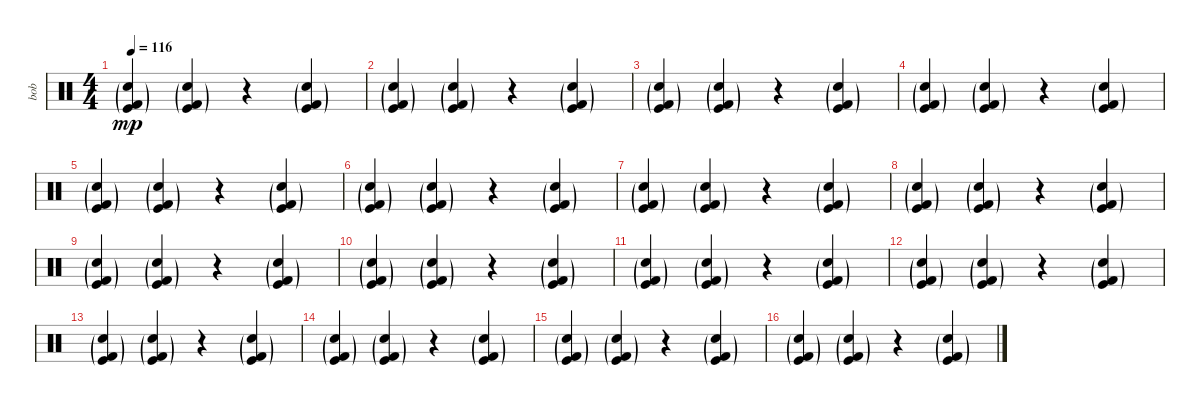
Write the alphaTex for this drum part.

\track ("bob" "bob") {instrument percussion}
\staff {score}
\articulation defaults
\ts (4 4)
\tempo 116
\clef neutral
\ks c
("Snare (hit) 2"{g} "Kick (hit) 2"{g} "Kick (hit)"{g}).4{dy mp} ("Snare (hit) 2"{g} "Kick (hit) 2"{g} "Kick (hit)"{g}).4 r.4 ("Snare (hit) 2"{g} "Kick (hit) 2"{g} "Kick (hit)"{g}).4 |
("Snare (hit) 2"{g} "Kick (hit) 2"{g} "Kick (hit)"{g}).4 ("Snare (hit) 2"{g} "Kick (hit) 2"{g} "Kick (hit)"{g}).4 r.4 ("Snare (hit) 2"{g} "Kick (hit) 2"{g} "Kick (hit)"{g}).4 |
("Snare (hit) 2"{g} "Kick (hit) 2"{g} "Kick (hit)"{g}).4 ("Snare (hit) 2"{g} "Kick (hit) 2"{g} "Kick (hit)"{g}).4 r.4 ("Snare (hit) 2"{g} "Kick (hit) 2"{g} "Kick (hit)"{g}).4 |
("Snare (hit) 2"{g} "Kick (hit) 2"{g} "Kick (hit)"{g}).4 ("Snare (hit) 2"{g} "Kick (hit) 2"{g} "Kick (hit)"{g}).4 r.4 ("Snare (hit) 2"{g} "Kick (hit) 2"{g} "Kick (hit)"{g}).4 |
("Snare (hit) 2"{g} "Kick (hit) 2"{g} "Kick (hit)"{g}).4 ("Snare (hit) 2"{g} "Kick (hit) 2"{g} "Kick (hit)"{g}).4 r.4 ("Snare (hit) 2"{g} "Kick (hit) 2"{g} "Kick (hit)"{g}).4 |
("Snare (hit) 2"{g} "Kick (hit) 2"{g} "Kick (hit)"{g}).4 ("Snare (hit) 2"{g} "Kick (hit) 2"{g} "Kick (hit)"{g}).4 r.4 ("Snare (hit) 2"{g} "Kick (hit) 2"{g} "Kick (hit)"{g}).4 |
("Snare (hit) 2"{g} "Kick (hit) 2"{g} "Kick (hit)"{g}).4 ("Snare (hit) 2"{g} "Kick (hit) 2"{g} "Kick (hit)"{g}).4 r.4 ("Snare (hit) 2"{g} "Kick (hit) 2"{g} "Kick (hit)"{g}).4 |
("Snare (hit) 2"{g} "Kick (hit) 2"{g} "Kick (hit)"{g}).4 ("Snare (hit) 2"{g} "Kick (hit) 2"{g} "Kick (hit)"{g}).4 r.4 ("Snare (hit) 2"{g} "Kick (hit) 2"{g} "Kick (hit)"{g}).4 |
("Snare (hit) 2"{g} "Kick (hit) 2"{g} "Kick (hit)"{g}).4 ("Snare (hit) 2"{g} "Kick (hit) 2"{g} "Kick (hit)"{g}).4 r.4 ("Snare (hit) 2"{g} "Kick (hit) 2"{g} "Kick (hit)"{g}).4 |
("Snare (hit) 2"{g} "Kick (hit) 2"{g} "Kick (hit)"{g}).4 ("Snare (hit) 2"{g} "Kick (hit) 2"{g} "Kick (hit)"{g}).4 r.4 ("Snare (hit) 2"{g} "Kick (hit) 2"{g} "Kick (hit)"{g}).4 |
("Snare (hit) 2"{g} "Kick (hit) 2"{g} "Kick (hit)"{g}).4 ("Snare (hit) 2"{g} "Kick (hit) 2"{g} "Kick (hit)"{g}).4 r.4 ("Snare (hit) 2"{g} "Kick (hit) 2"{g} "Kick (hit)"{g}).4 |
("Snare (hit) 2"{g} "Kick (hit) 2"{g} "Kick (hit)"{g}).4 ("Snare (hit) 2"{g} "Kick (hit) 2"{g} "Kick (hit)"{g}).4 r.4 ("Snare (hit) 2"{g} "Kick (hit) 2"{g} "Kick (hit)"{g}).4 |
("Snare (hit) 2"{g} "Kick (hit) 2"{g} "Kick (hit)"{g}).4 ("Snare (hit) 2"{g} "Kick (hit) 2"{g} "Kick (hit)"{g}).4 r.4 ("Snare (hit) 2"{g} "Kick (hit) 2"{g} "Kick (hit)"{g}).4 |
("Snare (hit) 2"{g} "Kick (hit) 2"{g} "Kick (hit)"{g}).4 ("Snare (hit) 2"{g} "Kick (hit) 2"{g} "Kick (hit)"{g}).4 r.4 ("Snare (hit) 2"{g} "Kick (hit) 2"{g} "Kick (hit)"{g}).4 |
("Snare (hit) 2"{g} "Kick (hit) 2"{g} "Kick (hit)"{g}).4 ("Snare (hit) 2"{g} "Kick (hit) 2"{g} "Kick (hit)"{g}).4 r.4 ("Snare (hit) 2"{g} "Kick (hit) 2"{g} "Kick (hit)"{g}).4 |
("Snare (hit) 2"{g} "Kick (hit) 2"{g} "Kick (hit)"{g}).4 ("Snare (hit) 2"{g} "Kick (hit) 2"{g} "Kick (hit)"{g}).4 r.4 ("Snare (hit) 2"{g} "Kick (hit) 2"{g} "Kick (hit)"{g}).4
